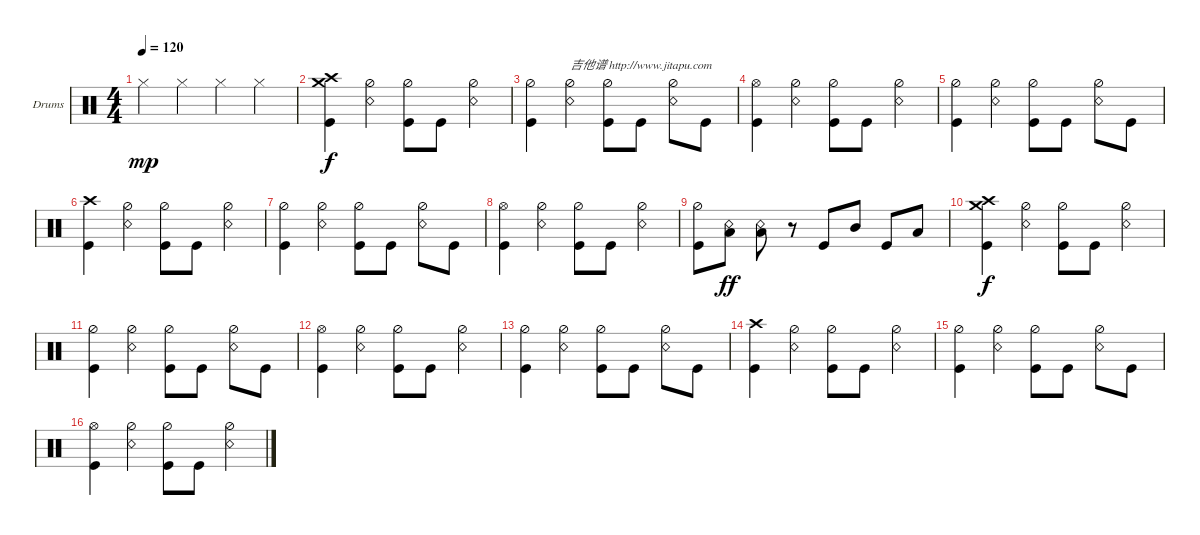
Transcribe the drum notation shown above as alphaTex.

\defaultSystemsLayout 4
\bracketExtendMode groupsimilarinstruments
\firstSystemTrackNameOrientation horizontal
\otherSystemsTrackNameOrientation horizontal
\track ("Drumkit" "Drums") {instrument percussion}
\staff {score}
\articulation defaults
\ts (4 4)
\tempo 120
\clef neutral
\ks c "Hi-Hat (closed)".4{dy mp} "Hi-Hat (closed)".4 "Hi-Hat (closed)".4 "Hi-Hat (closed)".4
|
("Kick (hit)" "Crash high (hit)" "Crash medium (hit)").4{dy f} ("Snare (rim shot)" "Hi-Hat (half)").4 ("Kick (hit)" "Hi-Hat (half)").8 "Kick (hit)".8 ("Snare (rim shot)" "Hi-Hat (half)").4 |
("Kick (hit)" "Hi-Hat (half)").4 ("Snare (rim shot)" "Hi-Hat (half)").4{txt "吉他谱 http://www.jitapu.com"} ("Kick (hit)" "Hi-Hat (half)").8 "Kick (hit)".8 ("Snare (rim shot)" "Hi-Hat (half)").8 "Kick (hit)".8 |
("Kick (hit)" "Hi-Hat (open)").4 ("Snare (rim shot)" "Hi-Hat (half)").4 ("Kick (hit)" "Hi-Hat (half)").8 "Kick (hit)".8 ("Snare (rim shot)" "Hi-Hat (half)").4 |
("Kick (hit)" "Hi-Hat (half)").4 ("Snare (rim shot)" "Hi-Hat (half)").4 ("Kick (hit)" "Hi-Hat (half)").8 "Kick (hit)".8 ("Snare (rim shot)" "Hi-Hat (half)").8 "Kick (hit)".8 |
("Kick (hit)" "Crash high (hit)").4 ("Snare (rim shot)" "Hi-Hat (half)").4 ("Kick (hit)" "Hi-Hat (half)").8 "Kick (hit)".8 ("Snare (rim shot)" "Hi-Hat (half)").4 |
("Kick (hit)" "Hi-Hat (half)").4 ("Snare (rim shot)" "Hi-Hat (half)").4 ("Kick (hit)" "Hi-Hat (half)").8 "Kick (hit)".8 ("Snare (rim shot)" "Hi-Hat (half)").8 "Kick (hit)".8 |
("Kick (hit)" "Hi-Hat (open)").4 ("Snare (rim shot)" "Hi-Hat (half)").4 ("Kick (hit)" "Hi-Hat (half)").8 "Kick (hit)".8 ("Snare (rim shot)" "Hi-Hat (half)").4 |
("Kick (hit)" "Hi-Hat (half)").8 ("Snare (rim shot)" "Low Tom (hit)").8{dy ff} ("Snare (rim shot)" "Low Tom (hit)").8 r.8 "Kick (hit)".8 "Mid Tom (hit)".8 "Kick (hit)".8 "Low Tom (hit)".8 |
("Kick (hit)" "Crash high (hit)" "Crash medium (hit)").4{dy f} ("Snare (rim shot)" "Hi-Hat (half)").4 ("Kick (hit)" "Hi-Hat (half)").8 "Kick (hit)".8 ("Snare (rim shot)" "Hi-Hat (half)").4 |
("Kick (hit)" "Hi-Hat (half)").4 ("Snare (rim shot)" "Hi-Hat (half)").4 ("Kick (hit)" "Hi-Hat (half)").8 "Kick (hit)".8 ("Snare (rim shot)" "Hi-Hat (half)").8 "Kick (hit)".8 |
("Kick (hit)" "Hi-Hat (open)").4 ("Snare (rim shot)" "Hi-Hat (half)").4 ("Kick (hit)" "Hi-Hat (half)").8 "Kick (hit)".8 ("Snare (rim shot)" "Hi-Hat (half)").4 |
("Kick (hit)" "Hi-Hat (half)").4 ("Snare (rim shot)" "Hi-Hat (half)").4 ("Kick (hit)" "Hi-Hat (half)").8 "Kick (hit)".8 ("Snare (rim shot)" "Hi-Hat (half)").8 "Kick (hit)".8 |
("Kick (hit)" "Crash high (hit)").4 ("Snare (rim shot)" "Hi-Hat (half)").4 ("Kick (hit)" "Hi-Hat (half)").8 "Kick (hit)".8 ("Snare (rim shot)" "Hi-Hat (half)").4 |
("Kick (hit)" "Hi-Hat (half)").4 ("Snare (rim shot)" "Hi-Hat (half)").4 ("Kick (hit)" "Hi-Hat (half)").8 "Kick (hit)".8 ("Snare (rim shot)" "Hi-Hat (half)").8 "Kick (hit)".8 |
("Kick (hit)" "Hi-Hat (open)").4 ("Snare (rim shot)" "Hi-Hat (half)").4 ("Kick (hit)" "Hi-Hat (half)").8 "Kick (hit)".8 ("Snare (rim shot)" "Hi-Hat (half)").4
